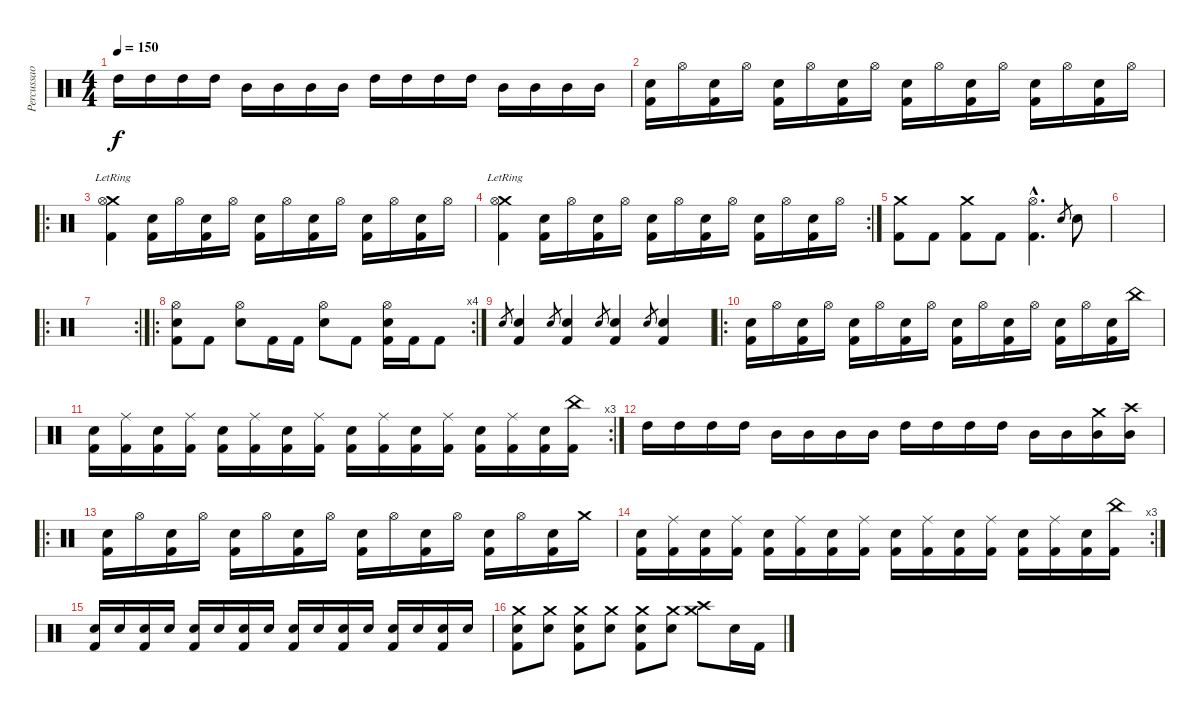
\track ("Percussao" "Percussao") {instrument percussion}
\staff {score}
\articulation defaults
\ts (4 4)
\tempo 150
\clef neutral
\ks c "High Tom (hit)".16{dy f} "High Tom (hit)".16 "High Tom (hit)".16 "High Tom (hit)".16 "Mid Tom (hit)".16 "Mid Tom (hit)".16 "Mid Tom (hit)".16 "Mid Tom (hit)".16 "High Tom (hit)".16 "High Tom (hit)".16 "High Tom (hit)".16 "High Tom (hit)".16 "Mid Tom (hit)".16 "Mid Tom (hit)".16 "Mid Tom (hit)".16 "Mid Tom (hit)".16
|
("Electric Snare (hit)" "Kick (hit) 2").16 "Hi-Hat (open)".16 ("Electric Snare (hit)" "Kick (hit) 2").16 "Hi-Hat (open)".16 ("Electric Snare (hit)" "Kick (hit) 2").16 "Hi-Hat (open)".16 ("Electric Snare (hit)" "Kick (hit) 2").16 "Hi-Hat (open)".16 ("Electric Snare (hit)" "Kick (hit) 2").16 "Hi-Hat (open)".16 ("Electric Snare (hit)" "Kick (hit) 2").16 "Hi-Hat (open)".16 ("Electric Snare (hit)" "Kick (hit) 2").16 "Hi-Hat (open)".16 ("Electric Snare (hit)" "Kick (hit) 2").16 "Hi-Hat (open)".16 |
\ro
("Crash medium (hit)"{lr} "Hi-Hat (open)" "Kick (hit) 2").4 ("Electric Snare (hit)" "Kick (hit) 2").16 "Hi-Hat (open)".16 ("Electric Snare (hit)" "Kick (hit) 2").16 "Hi-Hat (open)".16 ("Electric Snare (hit)" "Kick (hit) 2").16 "Hi-Hat (open)".16 ("Electric Snare (hit)" "Kick (hit) 2").16 "Hi-Hat (open)".16 ("Electric Snare (hit)" "Kick (hit) 2").16 "Hi-Hat (open)".16 ("Electric Snare (hit)" "Kick (hit) 2").16 "Hi-Hat (open)".16 |
\rc 2
("Crash medium (hit)"{lr} "Hi-Hat (open)" "Kick (hit) 2").4 ("Electric Snare (hit)" "Kick (hit) 2").16 "Hi-Hat (open)".16 ("Electric Snare (hit)" "Kick (hit) 2").16 "Hi-Hat (open)".16 ("Electric Snare (hit)" "Kick (hit) 2").16 "Hi-Hat (open)".16 ("Electric Snare (hit)" "Kick (hit) 2").16 "Hi-Hat (open)".16 ("Electric Snare (hit)" "Kick (hit) 2").16 "Hi-Hat (open)".16 ("Electric Snare (hit)" "Kick (hit) 2").16 "Hi-Hat (open)".16 |
("Crash medium (hit)" "Kick (hit) 2").8 "Kick (hit) 2".8 ("Crash medium (hit)" "Kick (hit) 2").8 "Kick (hit) 2".8 ("Hi-Hat (open)"{hac} "Kick (hit) 2"{hac}).4{d} "Electric Snare (hit)".8{gr} "Electric Snare (hit)".8 |
|
\ro
\rc 2
|
\ro
\rc 4
("Hi-Hat (open)" "Electric Snare (hit)" "Kick (hit) 2").8 "Kick (hit) 2".8 ("Hi-Hat (open)" "Electric Snare (hit)").8 "Kick (hit) 2".16 "Kick (hit) 2".16 ("Hi-Hat (open)" "Electric Snare (hit)").8 "Kick (hit) 2".8 ("Hi-Hat (open)" "Electric Snare (hit)" "Kick (hit) 2").16 "Kick (hit) 2".16 "Kick (hit) 2".8 |
"Electric Snare (hit)".8{gr} ("Electric Snare (hit)" "Kick (hit) 2").4 "Electric Snare (hit)".8{gr} ("Electric Snare (hit)" "Kick (hit) 2").4 "Electric Snare (hit)".8{gr} ("Electric Snare (hit)" "Kick (hit) 2").4 "Electric Snare (hit)".8{gr} ("Electric Snare (hit)" "Kick (hit) 2").4 |
\ro
("Electric Snare (hit)" "Kick (hit) 2").16 "Hi-Hat (open)".16 ("Electric Snare (hit)" "Kick (hit) 2").16 "Hi-Hat (open)".16 ("Electric Snare (hit)" "Kick (hit) 2").16 "Hi-Hat (open)".16 ("Electric Snare (hit)" "Kick (hit) 2").16 "Hi-Hat (open)".16 ("Electric Snare (hit)" "Kick (hit) 2").16 "Hi-Hat (open)".16 ("Electric Snare (hit)" "Kick (hit) 2").16 "Hi-Hat (open)".16 ("Electric Snare (hit)" "Kick (hit) 2").16 "Hi-Hat (open)".16 ("Electric Snare (hit)" "Kick (hit) 2").16 "China (hit)".16 |
\rc 3
("Electric Snare (hit)" "Kick (hit) 2").16 ("Ride (middle)" "Kick (hit) 2").16 ("Electric Snare (hit)" "Kick (hit) 2").16 ("Ride (middle)" "Kick (hit) 2").16 ("Electric Snare (hit)" "Kick (hit) 2").16 ("Ride (middle)" "Kick (hit) 2").16 ("Electric Snare (hit)" "Kick (hit) 2").16 ("Ride (middle)" "Kick (hit) 2").16 ("Electric Snare (hit)" "Kick (hit) 2").16 ("Ride (middle)" "Kick (hit) 2").16 ("Electric Snare (hit)" "Kick (hit) 2").16 ("Ride (middle)" "Kick (hit) 2").16 ("Electric Snare (hit)" "Kick (hit) 2").16 ("Ride (middle)" "Kick (hit) 2").16 ("Electric Snare (hit)" "Kick (hit) 2").16 ("China (hit)" "Kick (hit) 2").16 |
"High Tom (hit)".16 "High Tom (hit)".16 "High Tom (hit)".16 "High Tom (hit)".16 "Mid Tom (hit)".16 "Mid Tom (hit)".16 "Mid Tom (hit)".16 "Mid Tom (hit)".16 "High Tom (hit)".16 "High Tom (hit)".16 "High Tom (hit)".16 "High Tom (hit)".16 "Mid Tom (hit)".16 "Mid Tom (hit)".16 ("Crash medium (hit)" "Mid Tom (hit)").16 ("Crash high (hit)" "Mid Tom (hit)").16 |
\ro
("Electric Snare (hit)" "Kick (hit) 2").16 "Hi-Hat (open)".16 ("Electric Snare (hit)" "Kick (hit) 2").16 "Hi-Hat (open)".16 ("Electric Snare (hit)" "Kick (hit) 2").16 "Hi-Hat (open)".16 ("Electric Snare (hit)" "Kick (hit) 2").16 "Hi-Hat (open)".16 ("Electric Snare (hit)" "Kick (hit) 2").16 "Hi-Hat (open)".16 ("Electric Snare (hit)" "Kick (hit) 2").16 "Hi-Hat (open)".16 ("Electric Snare (hit)" "Kick (hit) 2").16 "Hi-Hat (open)".16 ("Electric Snare (hit)" "Kick (hit) 2").16 "Crash medium (hit)".16 |
\rc 3
("Electric Snare (hit)" "Kick (hit) 2").16 ("Ride (middle)" "Kick (hit) 2").16 ("Electric Snare (hit)" "Kick (hit) 2").16 ("Ride (middle)" "Kick (hit) 2").16 ("Electric Snare (hit)" "Kick (hit) 2").16 ("Ride (middle)" "Kick (hit) 2").16 ("Electric Snare (hit)" "Kick (hit) 2").16 ("Ride (middle)" "Kick (hit) 2").16 ("Electric Snare (hit)" "Kick (hit) 2").16 ("Ride (middle)" "Kick (hit) 2").16 ("Electric Snare (hit)" "Kick (hit) 2").16 ("Ride (middle)" "Kick (hit) 2").16 ("Electric Snare (hit)" "Kick (hit) 2").16 ("Ride (middle)" "Kick (hit) 2").16 ("Electric Snare (hit)" "Kick (hit) 2").16 ("China (hit)" "Kick (hit) 2").16 |
("Electric Snare (hit)" "Kick (hit) 2").16 "Electric Snare (hit)".16 ("Electric Snare (hit)" "Kick (hit) 2").16 "Electric Snare (hit)".16 ("Electric Snare (hit)" "Kick (hit) 2").16 "Electric Snare (hit)".16 ("Electric Snare (hit)" "Kick (hit) 2").16 "Electric Snare (hit)".16 ("Electric Snare (hit)" "Kick (hit) 2").16 "Electric Snare (hit)".16 ("Electric Snare (hit)" "Kick (hit) 2").16 "Electric Snare (hit)".16 ("Electric Snare (hit)" "Kick (hit) 2").16 "Electric Snare (hit)".16 ("Electric Snare (hit)" "Kick (hit) 2").16 "Electric Snare (hit)".16 |
("Crash medium (hit)" "Electric Snare (hit)" "Kick (hit) 2").8 ("Crash medium (hit)" "Electric Snare (hit)").8 ("Crash medium (hit)" "Electric Snare (hit)" "Kick (hit) 2").8 ("Crash medium (hit)" "Electric Snare (hit)").8 ("Crash medium (hit)" "Electric Snare (hit)" "Kick (hit) 2").8 ("Crash medium (hit)" "Electric Snare (hit)").8 ("Crash medium (hit)" "Crash high (hit)").8 "Electric Snare (hit)".16 "Kick (hit) 2".16
